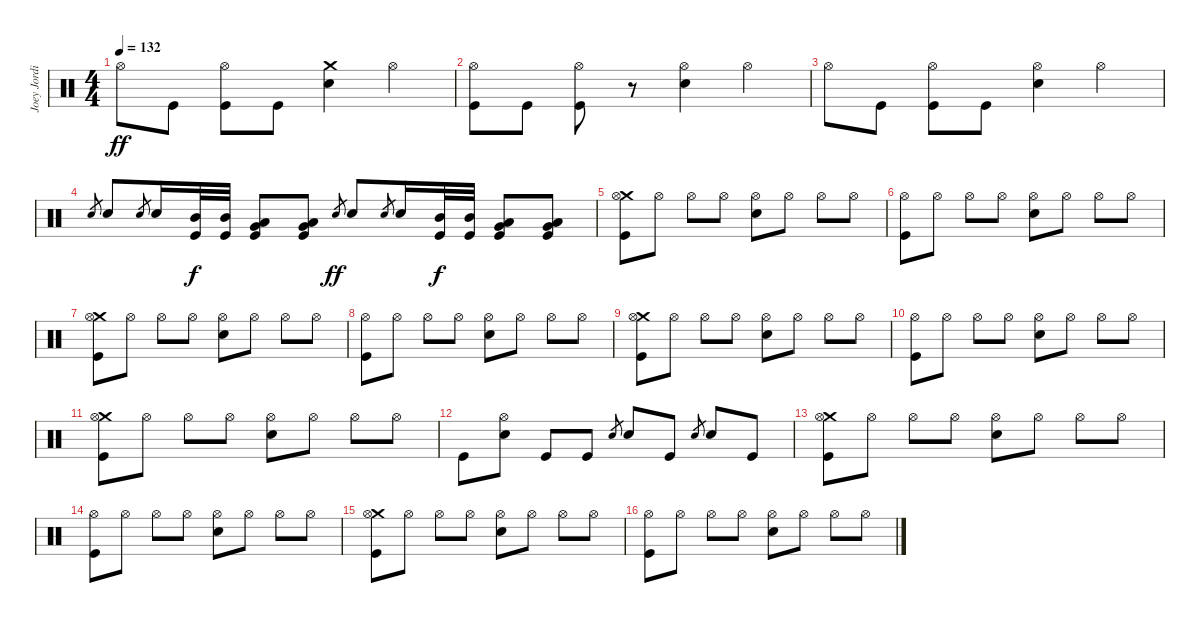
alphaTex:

\track ("Joey Jordison" "Joey Jordi") {instrument percussion}
\staff {score}
\articulation defaults
\ts (4 4)
\tempo 132
\clef neutral
\ks c "Hi-Hat (open)".8{dy ff} "Kick (hit)".8
("Kick (hit)" "Hi-Hat (open)").8 "Kick (hit)".8 ("Snare (hit) 2" "Crash medium (hit)").4 "Hi-Hat (open)".4 |
("Kick (hit)" "Hi-Hat (open)").8 "Kick (hit)".8 ("Hi-Hat (open)" "Kick (hit)").8 r.8 ("Hi-Hat (open)" "Snare (hit) 2").4 "Hi-Hat (open)".4 |
"Hi-Hat (open)".8 "Kick (hit)".8 ("Kick (hit)" "Hi-Hat (open)").8 "Kick (hit)".8 ("Snare (hit) 2" "Hi-Hat (open)").4 "Hi-Hat (open)".4 |
"Snare (hit)".8{gr} "Snare (hit) 2".8 "Snare (hit)".8{gr} "Snare (hit) 2".16 ("Kick (hit)" "Mid Tom (hit)").32{dy f} ("Kick (hit)" "Mid Tom (hit)").32 ("Kick (hit)" "Very Low Tom (hit)" "Low Floor Tom (hit)").8 ("Kick (hit)" "Very Low Tom (hit)" "Low Floor Tom (hit)").8 "Snare (hit)".8{gr dy ff} "Snare (hit) 2".8 "Snare (hit)".8{gr} "Snare (hit) 2".16 ("Kick (hit)" "Mid Tom (hit)").32{dy f} ("Kick (hit)" "Mid Tom (hit)").32 ("Kick (hit)" "Very Low Tom (hit)" "Low Floor Tom (hit)").8 ("Kick (hit)" "Very Low Tom (hit)" "Low Floor Tom (hit)").8 |
("Kick (hit)" "Crash medium (hit)" "Hi-Hat (open)").8 "Hi-Hat (open)".8 "Hi-Hat (open)".8 "Hi-Hat (open)".8 ("Snare (hit) 2" "Hi-Hat (open)").8 "Hi-Hat (open)".8 "Hi-Hat (open)".8 "Hi-Hat (open)".8 |
("Kick (hit)" "Hi-Hat (open)").8 "Hi-Hat (open)".8 "Hi-Hat (open)".8 "Hi-Hat (open)".8 ("Snare (hit) 2" "Hi-Hat (open)").8 "Hi-Hat (open)".8 "Hi-Hat (open)".8 "Hi-Hat (open)".8 |
("Kick (hit)" "Crash medium (hit)" "Hi-Hat (open)").8 "Hi-Hat (open)".8 "Hi-Hat (open)".8 "Hi-Hat (open)".8 ("Snare (hit) 2" "Hi-Hat (open)").8 "Hi-Hat (open)".8 "Hi-Hat (open)".8 "Hi-Hat (open)".8 |
("Kick (hit)" "Hi-Hat (open)").8 "Hi-Hat (open)".8 "Hi-Hat (open)".8 "Hi-Hat (open)".8 ("Snare (hit) 2" "Hi-Hat (open)").8 "Hi-Hat (open)".8 "Hi-Hat (open)".8 "Hi-Hat (open)".8 |
("Kick (hit)" "Crash medium (hit)" "Hi-Hat (open)").8 "Hi-Hat (open)".8 "Hi-Hat (open)".8 "Hi-Hat (open)".8 ("Snare (hit) 2" "Hi-Hat (open)").8 "Hi-Hat (open)".8 "Hi-Hat (open)".8 "Hi-Hat (open)".8 |
("Kick (hit)" "Hi-Hat (open)").8 "Hi-Hat (open)".8 "Hi-Hat (open)".8 "Hi-Hat (open)".8 ("Snare (hit) 2" "Hi-Hat (open)").8 "Hi-Hat (open)".8 "Hi-Hat (open)".8 "Hi-Hat (open)".8 |
("Kick (hit)" "Crash medium (hit)" "Hi-Hat (open)").8 "Hi-Hat (open)".8 "Hi-Hat (open)".8 "Hi-Hat (open)".8 ("Snare (hit) 2" "Hi-Hat (open)").8 "Hi-Hat (open)".8 "Hi-Hat (open)".8 "Hi-Hat (open)".8 |
"Kick (hit)".8 ("Hi-Hat (open)" "Snare (hit) 2").8 "Kick (hit)".8 "Kick (hit)".8 "Snare (hit)".8{gr} "Snare (hit) 2".8 "Kick (hit)".8 "Snare (hit)".8{gr} "Snare (hit) 2".8 "Kick (hit)".8 |
("Kick (hit)" "Crash medium (hit)" "Hi-Hat (open)").8 "Hi-Hat (open)".8 "Hi-Hat (open)".8 "Hi-Hat (open)".8 ("Snare (hit) 2" "Hi-Hat (open)").8 "Hi-Hat (open)".8 "Hi-Hat (open)".8 "Hi-Hat (open)".8 |
("Kick (hit)" "Hi-Hat (open)").8 "Hi-Hat (open)".8 "Hi-Hat (open)".8 "Hi-Hat (open)".8 ("Snare (hit) 2" "Hi-Hat (open)").8 "Hi-Hat (open)".8 "Hi-Hat (open)".8 "Hi-Hat (open)".8 |
("Kick (hit)" "Crash medium (hit)" "Hi-Hat (open)").8 "Hi-Hat (open)".8 "Hi-Hat (open)".8 "Hi-Hat (open)".8 ("Snare (hit) 2" "Hi-Hat (open)").8 "Hi-Hat (open)".8 "Hi-Hat (open)".8 "Hi-Hat (open)".8 |
("Kick (hit)" "Hi-Hat (open)").8 "Hi-Hat (open)".8 "Hi-Hat (open)".8 "Hi-Hat (open)".8 ("Snare (hit) 2" "Hi-Hat (open)").8 "Hi-Hat (open)".8 "Hi-Hat (open)".8 "Hi-Hat (open)".8
